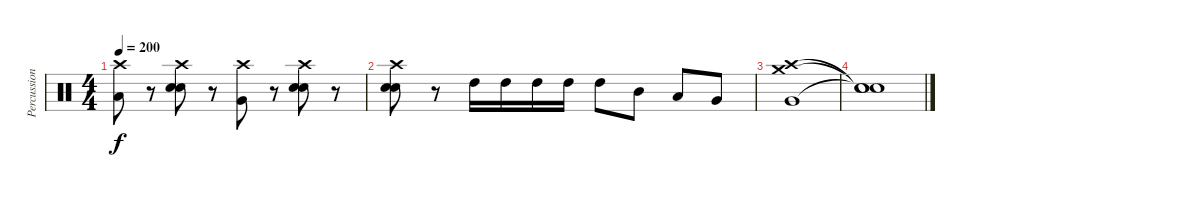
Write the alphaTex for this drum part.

\track ("Percussion" "Percussion") {instrument percussion}
\staff {score}
\articulation defaults
\ts (4 4)
\tempo 200
\clef neutral
\ks c
("Crash high (hit)" "Low Floor Tom (hit)").8{dy f} r.8 ("Crash high (hit)" "Snare (hit) 2" "Electric Snare (hit)").8 r.8 ("Crash high (hit)" "Very Low Tom (hit)").8 r.8 ("Crash high (hit)" "Snare (hit) 2" "Electric Snare (hit)").8 r.8 |
("Crash high (hit)" "Electric Snare (hit)" "Snare (hit) 2").8 r.8 "High Tom (hit)".16 "High Tom (hit)".16 "High Tom (hit)".16 "High Tom (hit)".16 "High Tom (hit)".8 "Mid Tom (hit)".8 "Low Tom (hit)".8 "Very Low Tom (hit)".8 |
("Crash high (hit)" "Crash medium (hit)" "Very Low Tom (hit)").1 |
("Snare (hit)"{t} "Snare (hit)"{t} "Snare (hit)"{t}).1
